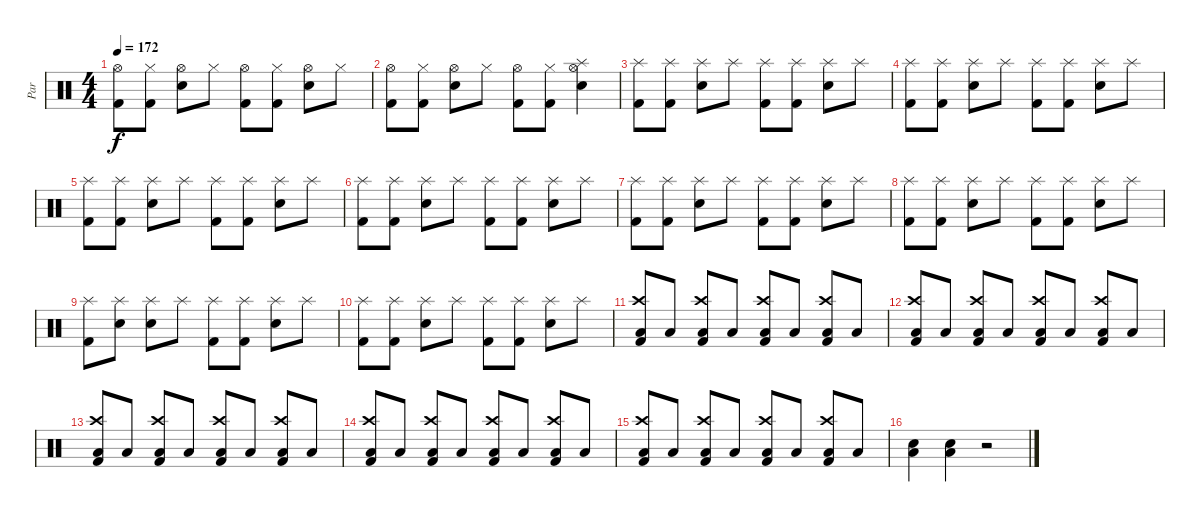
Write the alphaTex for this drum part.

\track ("Par" "Par") {instrument percussion}
\staff {score}
\articulation defaults
\ts (4 4)
\tempo 172
\clef neutral
\ks c
("Hi-Hat (open)" "Kick (hit) 2").8{dy f} ("Hi-Hat (closed)" "Kick (hit) 2").8 ("Hi-Hat (open)" "Snare (hit) 2").8 "Hi-Hat (closed)".8 ("Hi-Hat (open)" "Kick (hit) 2").8 ("Hi-Hat (closed)" "Kick (hit) 2").8 ("Hi-Hat (open)" "Snare (hit) 2").8 "Hi-Hat (closed)".8 |
("Hi-Hat (open)" "Kick (hit) 2").8 ("Hi-Hat (closed)" "Kick (hit) 2").8 ("Hi-Hat (open)" "Snare (hit) 2").8 "Hi-Hat (closed)".8 ("Hi-Hat (open)" "Kick (hit) 2").8 ("Hi-Hat (closed)" "Kick (hit) 2").8 ("Hi-Hat (open)" "Splash (hit)" "Snare (hit) 2").4 |
("Splash (hit)" "Kick (hit) 2").8 ("Splash (hit)" "Kick (hit) 2").8 ("Splash (hit)" "Snare (hit) 2").8 "Splash (hit)".8 ("Splash (hit)" "Kick (hit) 2").8 ("Splash (hit)" "Kick (hit) 2").8 ("Splash (hit)" "Snare (hit) 2").8 "Splash (hit)".8 |
("Splash (hit)" "Kick (hit) 2").8 ("Splash (hit)" "Kick (hit) 2").8 ("Splash (hit)" "Snare (hit) 2").8 "Splash (hit)".8 ("Splash (hit)" "Kick (hit) 2").8 ("Splash (hit)" "Kick (hit) 2").8 ("Splash (hit)" "Snare (hit) 2").8 "Splash (hit)".8 |
("Splash (hit)" "Kick (hit) 2").8 ("Splash (hit)" "Kick (hit) 2").8 ("Splash (hit)" "Snare (hit) 2").8 "Splash (hit)".8 ("Splash (hit)" "Kick (hit) 2").8 ("Splash (hit)" "Kick (hit) 2").8 ("Splash (hit)" "Snare (hit) 2").8 "Splash (hit)".8 |
("Splash (hit)" "Kick (hit) 2").8 ("Splash (hit)" "Kick (hit) 2").8 ("Splash (hit)" "Snare (hit) 2").8 "Splash (hit)".8 ("Splash (hit)" "Kick (hit) 2").8 ("Splash (hit)" "Kick (hit) 2").8 ("Splash (hit)" "Snare (hit) 2").8 "Splash (hit)".8 |
("Splash (hit)" "Kick (hit) 2").8 ("Splash (hit)" "Kick (hit) 2").8 ("Splash (hit)" "Snare (hit) 2").8 "Splash (hit)".8 ("Splash (hit)" "Kick (hit) 2").8 ("Splash (hit)" "Kick (hit) 2").8 ("Splash (hit)" "Snare (hit) 2").8 "Splash (hit)".8 |
("Splash (hit)" "Kick (hit) 2").8 ("Splash (hit)" "Kick (hit) 2").8 ("Splash (hit)" "Snare (hit) 2").8 "Splash (hit)".8 ("Splash (hit)" "Kick (hit) 2").8 ("Splash (hit)" "Kick (hit) 2").8 ("Splash (hit)" "Snare (hit) 2").8 "Splash (hit)".8 |
("Splash (hit)" "Kick (hit) 2").8 ("Splash (hit)" "Snare (hit) 2").8 ("Splash (hit)" "Snare (hit) 2").8 "Splash (hit)".8 ("Splash (hit)" "Kick (hit) 2").8 ("Splash (hit)" "Kick (hit) 2").8 ("Splash (hit)" "Snare (hit) 2").8 "Splash (hit)".8 |
("Splash (hit)" "Kick (hit) 2").8 ("Splash (hit)" "Kick (hit) 2").8 ("Splash (hit)" "Snare (hit) 2").8 "Splash (hit)".8 ("Splash (hit)" "Kick (hit) 2").8 ("Splash (hit)" "Kick (hit) 2").8 ("Splash (hit)" "Snare (hit) 2").8 "Splash (hit)".8 |
("Crash high (hit)" "Low Floor Tom (hit)" "Kick (hit) 2").8 "Low Floor Tom (hit)".8 ("Crash high (hit)" "Low Floor Tom (hit)" "Kick (hit) 2").8 "Low Floor Tom (hit)".8 ("Crash high (hit)" "Low Floor Tom (hit)" "Kick (hit) 2").8 "Low Floor Tom (hit)".8 ("Crash high (hit)" "Low Floor Tom (hit)" "Kick (hit) 2").8 "Low Floor Tom (hit)".8 |
("Crash high (hit)" "Low Floor Tom (hit)" "Kick (hit) 2").8 "Low Floor Tom (hit)".8 ("Crash high (hit)" "Low Floor Tom (hit)" "Kick (hit) 2").8 "Low Floor Tom (hit)".8 ("Crash high (hit)" "Low Floor Tom (hit)" "Kick (hit) 2").8 "Low Floor Tom (hit)".8 ("Crash high (hit)" "Low Floor Tom (hit)" "Kick (hit) 2").8 "Low Floor Tom (hit)".8 |
("Crash high (hit)" "Low Floor Tom (hit)" "Kick (hit) 2").8 "Low Floor Tom (hit)".8 ("Crash high (hit)" "Low Floor Tom (hit)" "Kick (hit) 2").8 "Low Floor Tom (hit)".8 ("Crash high (hit)" "Low Floor Tom (hit)" "Kick (hit) 2").8 "Low Floor Tom (hit)".8 ("Crash high (hit)" "Low Floor Tom (hit)" "Kick (hit) 2").8 "Low Floor Tom (hit)".8 |
("Crash high (hit)" "Low Floor Tom (hit)" "Kick (hit) 2").8 "Low Floor Tom (hit)".8 ("Crash high (hit)" "Low Floor Tom (hit)" "Kick (hit) 2").8 "Low Floor Tom (hit)".8 ("Crash high (hit)" "Low Floor Tom (hit)" "Kick (hit) 2").8 "Low Floor Tom (hit)".8 ("Crash high (hit)" "Low Floor Tom (hit)" "Kick (hit) 2").8 "Low Floor Tom (hit)".8 |
("Crash high (hit)" "Low Floor Tom (hit)" "Kick (hit) 2").8 "Low Floor Tom (hit)".8 ("Crash high (hit)" "Low Floor Tom (hit)" "Kick (hit) 2").8 "Low Floor Tom (hit)".8 ("Crash high (hit)" "Low Floor Tom (hit)" "Kick (hit) 2").8 "Low Floor Tom (hit)".8 ("Crash high (hit)" "Low Floor Tom (hit)" "Kick (hit) 2").8 "Low Floor Tom (hit)".8 |
("Low Floor Tom (hit)" "Snare (hit) 2").4 ("Low Floor Tom (hit)" "Snare (hit) 2").4 r.2
